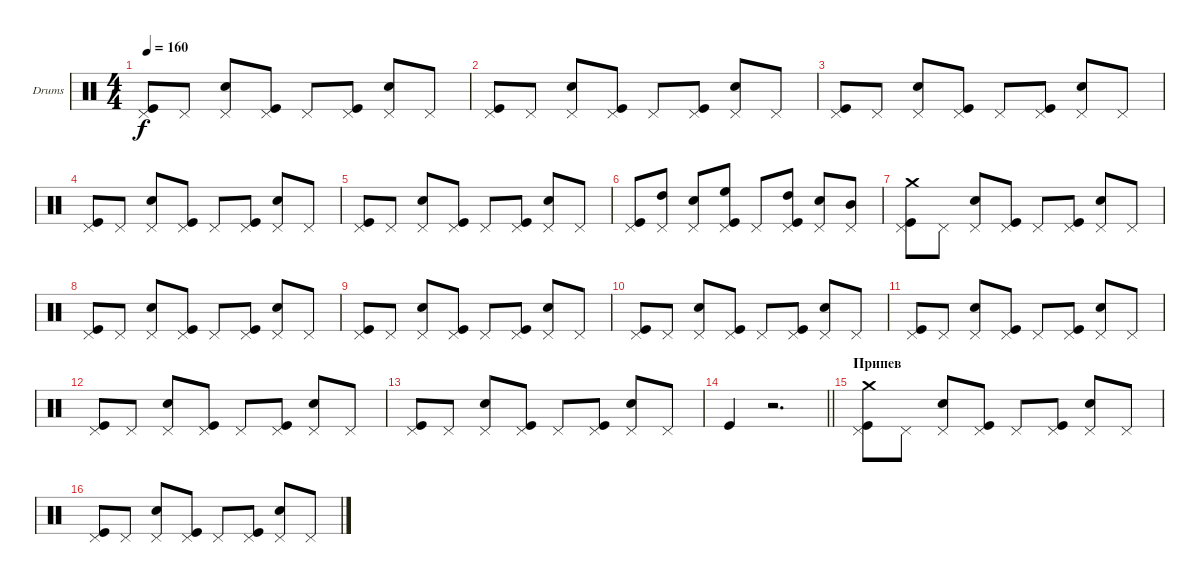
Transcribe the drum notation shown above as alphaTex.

\bracketExtendMode groupsimilarinstruments
\firstSystemTrackNameOrientation horizontal
\otherSystemsTrackNameOrientation horizontal
\track ("Ударные" "Drums") {instrument percussion}
\staff {score}
\articulation defaults
\ts (4 4)
\tempo 160
\clef neutral
\ks c
("Pedal Hi-Hat (hit)" "Kick (hit)").8{dy f} "Pedal Hi-Hat (hit)".8 ("Pedal Hi-Hat (hit)" "Snare (hit) 2").8 ("Pedal Hi-Hat (hit)" "Kick (hit)").8 "Pedal Hi-Hat (hit)".8 ("Pedal Hi-Hat (hit)" "Kick (hit)").8 ("Pedal Hi-Hat (hit)" "Snare (hit) 2").8 "Pedal Hi-Hat (hit)".8 |
("Pedal Hi-Hat (hit)" "Kick (hit)").8 "Pedal Hi-Hat (hit)".8 ("Pedal Hi-Hat (hit)" "Snare (hit) 2").8 ("Pedal Hi-Hat (hit)" "Kick (hit)").8 "Pedal Hi-Hat (hit)".8 ("Pedal Hi-Hat (hit)" "Kick (hit)").8 ("Pedal Hi-Hat (hit)" "Snare (hit) 2").8 "Pedal Hi-Hat (hit)".8 |
("Pedal Hi-Hat (hit)" "Kick (hit)").8 "Pedal Hi-Hat (hit)".8 ("Pedal Hi-Hat (hit)" "Snare (hit) 2").8 ("Pedal Hi-Hat (hit)" "Kick (hit)").8 "Pedal Hi-Hat (hit)".8 ("Pedal Hi-Hat (hit)" "Kick (hit)").8 ("Pedal Hi-Hat (hit)" "Snare (hit) 2").8 "Pedal Hi-Hat (hit)".8 |
("Pedal Hi-Hat (hit)" "Kick (hit)").8 "Pedal Hi-Hat (hit)".8 ("Pedal Hi-Hat (hit)" "Snare (hit) 2").8 ("Pedal Hi-Hat (hit)" "Kick (hit)").8 "Pedal Hi-Hat (hit)".8 ("Pedal Hi-Hat (hit)" "Kick (hit)").8 ("Pedal Hi-Hat (hit)" "Snare (hit) 2").8 "Pedal Hi-Hat (hit)".8 |
("Pedal Hi-Hat (hit)" "Kick (hit)").8 "Pedal Hi-Hat (hit)".8 ("Pedal Hi-Hat (hit)" "Snare (hit) 2").8 ("Pedal Hi-Hat (hit)" "Kick (hit)").8 "Pedal Hi-Hat (hit)".8 ("Pedal Hi-Hat (hit)" "Kick (hit)").8 ("Pedal Hi-Hat (hit)" "Snare (hit) 2").8 "Pedal Hi-Hat (hit)".8 |
("Pedal Hi-Hat (hit)" "Kick (hit)").8 ("Pedal Hi-Hat (hit)" "High Tom (hit)").8 ("Pedal Hi-Hat (hit)" "Snare (hit) 2").8 ("Pedal Hi-Hat (hit)" "High Floor Tom (hit)" "Kick (hit)").8 "Pedal Hi-Hat (hit)".8 ("Pedal Hi-Hat (hit)" "High Tom (hit)" "Kick (hit)").8 ("Pedal Hi-Hat (hit)" "Snare (hit) 2").8 ("Pedal Hi-Hat (hit)" "Mid Tom (hit)").8 |
("Pedal Hi-Hat (hit)" "Crash medium (hit)" "Kick (hit)").8 "Pedal Hi-Hat (hit)".8 ("Pedal Hi-Hat (hit)" "Snare (hit) 2").8 ("Pedal Hi-Hat (hit)" "Kick (hit)").8 "Pedal Hi-Hat (hit)".8 ("Pedal Hi-Hat (hit)" "Kick (hit)").8 ("Pedal Hi-Hat (hit)" "Snare (hit) 2").8 "Pedal Hi-Hat (hit)".8 |
("Pedal Hi-Hat (hit)" "Kick (hit)").8 "Pedal Hi-Hat (hit)".8 ("Pedal Hi-Hat (hit)" "Snare (hit) 2").8 ("Pedal Hi-Hat (hit)" "Kick (hit)").8 "Pedal Hi-Hat (hit)".8 ("Pedal Hi-Hat (hit)" "Kick (hit)").8 ("Pedal Hi-Hat (hit)" "Snare (hit) 2").8 "Pedal Hi-Hat (hit)".8 |
("Pedal Hi-Hat (hit)" "Kick (hit)").8 "Pedal Hi-Hat (hit)".8 ("Pedal Hi-Hat (hit)" "Snare (hit) 2").8 ("Pedal Hi-Hat (hit)" "Kick (hit)").8 "Pedal Hi-Hat (hit)".8 ("Pedal Hi-Hat (hit)" "Kick (hit)").8 ("Pedal Hi-Hat (hit)" "Snare (hit) 2").8 "Pedal Hi-Hat (hit)".8 |
("Pedal Hi-Hat (hit)" "Kick (hit)").8 "Pedal Hi-Hat (hit)".8 ("Pedal Hi-Hat (hit)" "Snare (hit) 2").8 ("Pedal Hi-Hat (hit)" "Kick (hit)").8 "Pedal Hi-Hat (hit)".8 ("Pedal Hi-Hat (hit)" "Kick (hit)").8 ("Pedal Hi-Hat (hit)" "Snare (hit) 2").8 "Pedal Hi-Hat (hit)".8 |
("Pedal Hi-Hat (hit)" "Kick (hit)").8 "Pedal Hi-Hat (hit)".8 ("Pedal Hi-Hat (hit)" "Snare (hit) 2").8 ("Pedal Hi-Hat (hit)" "Kick (hit)").8 "Pedal Hi-Hat (hit)".8 ("Pedal Hi-Hat (hit)" "Kick (hit)").8 ("Pedal Hi-Hat (hit)" "Snare (hit) 2").8 "Pedal Hi-Hat (hit)".8 |
("Pedal Hi-Hat (hit)" "Kick (hit)").8 "Pedal Hi-Hat (hit)".8 ("Pedal Hi-Hat (hit)" "Snare (hit) 2").8 ("Pedal Hi-Hat (hit)" "Kick (hit)").8 "Pedal Hi-Hat (hit)".8 ("Pedal Hi-Hat (hit)" "Kick (hit)").8 ("Pedal Hi-Hat (hit)" "Snare (hit) 2").8 "Pedal Hi-Hat (hit)".8 |
("Pedal Hi-Hat (hit)" "Kick (hit)").8 "Pedal Hi-Hat (hit)".8 ("Pedal Hi-Hat (hit)" "Snare (hit) 2").8 ("Pedal Hi-Hat (hit)" "Kick (hit)").8 "Pedal Hi-Hat (hit)".8 ("Pedal Hi-Hat (hit)" "Kick (hit)").8 ("Pedal Hi-Hat (hit)" "Snare (hit) 2").8 "Pedal Hi-Hat (hit)".8 |
\barLineRight lightlight "Kick (hit)".4
r.2{d} |
\section ("" "Припев")
("Pedal Hi-Hat (hit)" "Crash medium (hit)" "Kick (hit)").8 "Pedal Hi-Hat (hit)".8 ("Pedal Hi-Hat (hit)" "Snare (hit) 2").8 ("Pedal Hi-Hat (hit)" "Kick (hit)").8 "Pedal Hi-Hat (hit)".8 ("Pedal Hi-Hat (hit)" "Kick (hit)").8 ("Pedal Hi-Hat (hit)" "Snare (hit) 2").8 "Pedal Hi-Hat (hit)".8 |
("Pedal Hi-Hat (hit)" "Kick (hit)").8 "Pedal Hi-Hat (hit)".8 ("Pedal Hi-Hat (hit)" "Snare (hit) 2").8 ("Pedal Hi-Hat (hit)" "Kick (hit)").8 "Pedal Hi-Hat (hit)".8 ("Pedal Hi-Hat (hit)" "Kick (hit)").8 ("Pedal Hi-Hat (hit)" "Snare (hit) 2").8 "Pedal Hi-Hat (hit)".8
